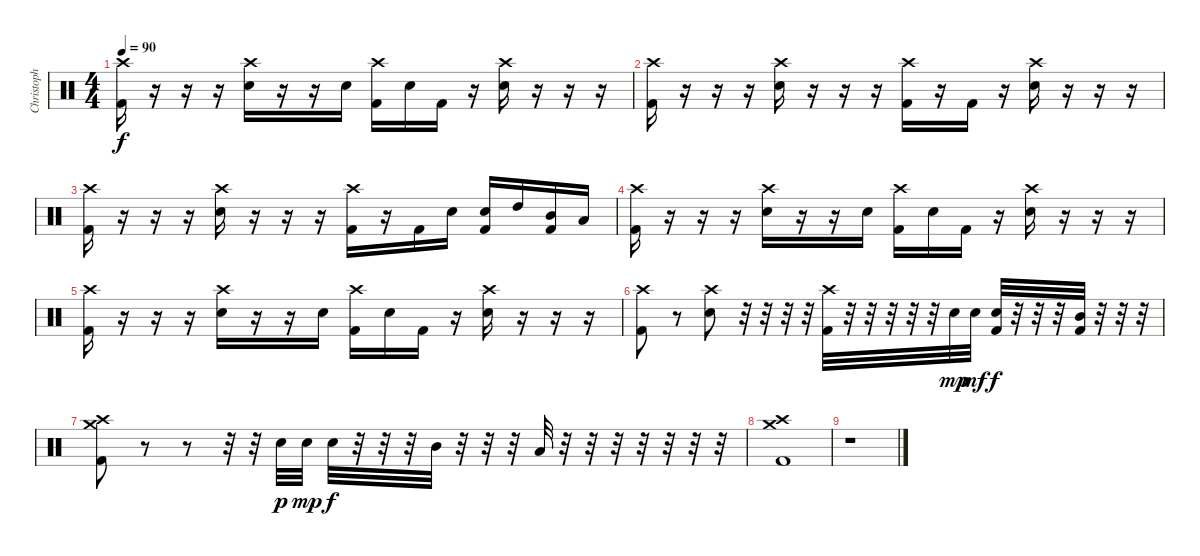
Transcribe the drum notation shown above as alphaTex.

\track ("Christoph Schneider" "Christoph ") {instrument percussion}
\staff {score}
\articulation defaults
\ts (4 4)
\tempo 90
\clef neutral
\ks c
("Crash high (hit)" "Kick (hit) 2").16{dy f} r.16 r.16 r.16 ("Crash high (hit)" "Snare (hit) 2").16 r.16 r.16 "Snare (hit) 2".16 ("Crash high (hit)" "Kick (hit) 2").16 "Snare (hit) 2".16 "Kick (hit) 2".16 r.16 ("Crash high (hit)" "Snare (hit) 2").16 r.16 r.16 r.16 |
("Crash high (hit)" "Kick (hit) 2").16 r.16 r.16 r.16 ("Crash high (hit)" "Snare (hit) 2").16 r.16 r.16 r.16 ("Crash high (hit)" "Kick (hit) 2").16 r.16 "Kick (hit) 2".16 r.16 ("Crash high (hit)" "Snare (hit) 2").16 r.16 r.16 r.16 |
("Crash high (hit)" "Kick (hit) 2").16 r.16 r.16 r.16 ("Crash high (hit)" "Snare (hit) 2").16 r.16 r.16 r.16 ("Crash high (hit)" "Kick (hit) 2").16 r.16 "Kick (hit) 2".16 "Snare (hit) 2".16 ("Kick (hit) 2" "Snare (hit) 2").16 "High Tom (hit)".16 ("Kick (hit) 2" "Mid Tom (hit)").16 "Low Tom (hit)".16 |
("Crash high (hit)" "Kick (hit) 2").16 r.16 r.16 r.16 ("Crash high (hit)" "Snare (hit) 2").16 r.16 r.16 "Snare (hit) 2".16 ("Crash high (hit)" "Kick (hit) 2").16 "Snare (hit) 2".16 "Kick (hit) 2".16 r.16 ("Crash high (hit)" "Snare (hit) 2").16 r.16 r.16 r.16 |
("Crash high (hit)" "Kick (hit) 2").16 r.16 r.16 r.16 ("Crash high (hit)" "Snare (hit) 2").16 r.16 r.16 "Snare (hit) 2".16 ("Crash high (hit)" "Kick (hit) 2").16 "Snare (hit) 2".16 "Kick (hit) 2".16 r.16 ("Crash high (hit)" "Snare (hit) 2").16 r.16 r.16 r.16 |
("Crash high (hit)" "Kick (hit) 2").8 r.8 ("Crash high (hit)" "Snare (hit) 2").8 r.32 r.32 r.32 r.32 ("Kick (hit) 2" "Crash high (hit)").32 r.32 r.32 r.32 r.32 r.32 "Snare (hit) 2".32{dy mp} "Snare (hit) 2".32{dy mf} ("Kick (hit) 2" "Snare (hit) 2").32{dy f} r.32 r.32 r.32 ("Kick (hit) 2" "Mid Tom (hit)").32 r.32 r.32 r.32 |
("Crash medium (hit)" "Kick (hit) 2" "Crash high (hit)").8 r.8 r.8 r.32 r.32 "Snare (hit) 2".32{dy p} "Snare (hit) 2".32{dy mp} "Snare (hit) 2".32{dy f} r.32 r.32 r.32 "Mid Tom (hit)".32 r.32 r.32 r.32 "Low Tom (hit)".32 r.32 r.32 r.32 r.32 r.32 r.32 r.32 |
("Crash medium (hit)" "Crash high (hit)" "Kick (hit) 2").1 |
r.1
